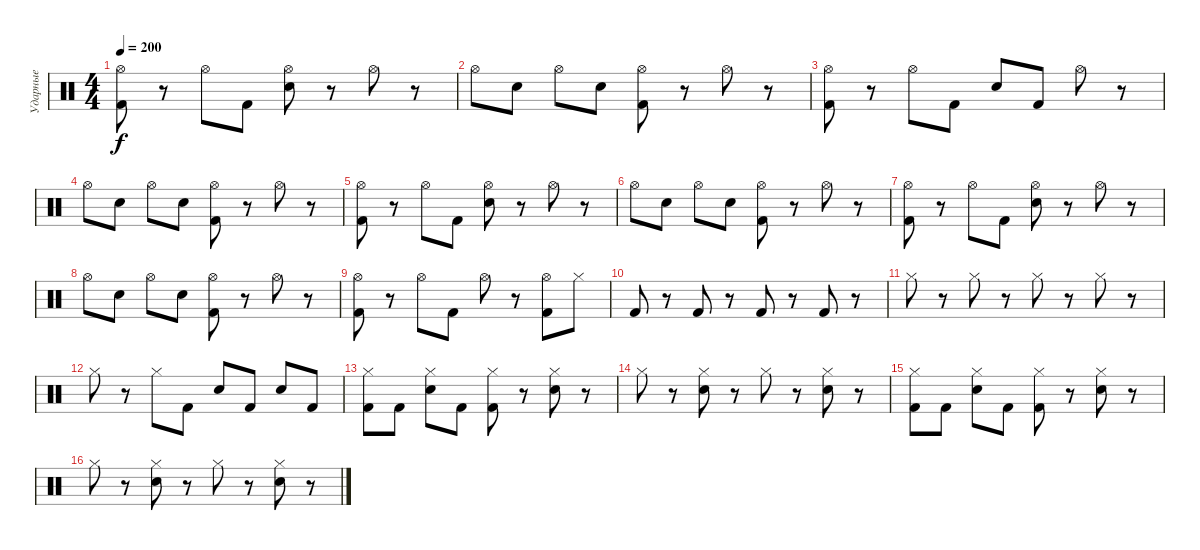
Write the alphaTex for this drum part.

\track ("Ударные" "Ударные") {instrument percussion}
\staff {score}
\articulation defaults
\ts (4 4)
\tempo 200
\clef neutral
\ks c
("Hi-Hat (open)" "Kick (hit) 2").8{dy f} r.8 "Hi-Hat (open)".8 "Kick (hit) 2".8 ("Hi-Hat (open)" "Electric Snare (hit)").8 r.8 "Hi-Hat (open)".8 r.8 |
"Hi-Hat (open)".8 "Electric Snare (hit)".8 "Hi-Hat (open)".8 "Electric Snare (hit)".8 ("Hi-Hat (open)" "Kick (hit) 2").8 r.8 "Hi-Hat (open)".8 r.8 |
("Hi-Hat (open)" "Kick (hit) 2").8 r.8 "Hi-Hat (open)".8 "Kick (hit) 2".8 "Electric Snare (hit)".8 "Kick (hit) 2".8 "Hi-Hat (open)".8 r.8 |
"Hi-Hat (open)".8 "Electric Snare (hit)".8 "Hi-Hat (open)".8 "Electric Snare (hit)".8 ("Hi-Hat (open)" "Kick (hit) 2").8 r.8 "Hi-Hat (open)".8 r.8 |
("Hi-Hat (open)" "Kick (hit) 2").8 r.8 "Hi-Hat (open)".8 "Kick (hit) 2".8 ("Hi-Hat (open)" "Electric Snare (hit)").8 r.8 "Hi-Hat (open)".8 r.8 |
"Hi-Hat (open)".8 "Electric Snare (hit)".8 "Hi-Hat (open)".8 "Electric Snare (hit)".8 ("Hi-Hat (open)" "Kick (hit) 2").8 r.8 "Hi-Hat (open)".8 r.8 |
("Hi-Hat (open)" "Kick (hit) 2").8 r.8 "Hi-Hat (open)".8 "Kick (hit) 2".8 ("Hi-Hat (open)" "Electric Snare (hit)").8 r.8 "Hi-Hat (open)".8 r.8 |
"Hi-Hat (open)".8 "Electric Snare (hit)".8 "Hi-Hat (open)".8 "Electric Snare (hit)".8 ("Hi-Hat (open)" "Kick (hit) 2").8 r.8 "Hi-Hat (open)".8 r.8 |
("Hi-Hat (open)" "Kick (hit) 2").8 r.8 "Hi-Hat (open)".8 "Kick (hit) 2".8 "Hi-Hat (open)".8 r.8 ("Hi-Hat (open)" "Kick (hit) 2").8 "Hi-Hat (closed)".8 |
"Kick (hit) 2".8 r.8 "Kick (hit) 2".8 r.8 "Kick (hit) 2".8 r.8 "Kick (hit) 2".8 r.8 |
"Hi-Hat (closed)".8 r.8 "Hi-Hat (closed)".8 r.8 "Hi-Hat (closed)".8 r.8 "Hi-Hat (closed)".8 r.8 |
"Hi-Hat (closed)".8 r.8 "Hi-Hat (closed)".8 "Kick (hit) 2".8 "Electric Snare (hit)".8 "Kick (hit) 2".8 "Electric Snare (hit)".8 "Kick (hit) 2".8 |
("Hi-Hat (closed)" "Kick (hit) 2").8 "Kick (hit) 2".8 ("Hi-Hat (closed)" "Electric Snare (hit)").8 "Kick (hit) 2".8 ("Hi-Hat (closed)" "Kick (hit) 2").8 r.8 ("Hi-Hat (closed)" "Electric Snare (hit)").8 r.8 |
"Hi-Hat (closed)".8 r.8 ("Hi-Hat (closed)" "Electric Snare (hit)").8 r.8 "Hi-Hat (closed)".8 r.8 ("Hi-Hat (closed)" "Electric Snare (hit)").8 r.8 |
("Hi-Hat (closed)" "Kick (hit) 2").8 "Kick (hit) 2".8 ("Hi-Hat (closed)" "Electric Snare (hit)").8 "Kick (hit) 2".8 ("Hi-Hat (closed)" "Kick (hit) 2").8 r.8 ("Hi-Hat (closed)" "Electric Snare (hit)").8 r.8 |
"Hi-Hat (closed)".8 r.8 ("Hi-Hat (closed)" "Electric Snare (hit)").8 r.8 "Hi-Hat (closed)".8 r.8 ("Hi-Hat (closed)" "Electric Snare (hit)").8 r.8
